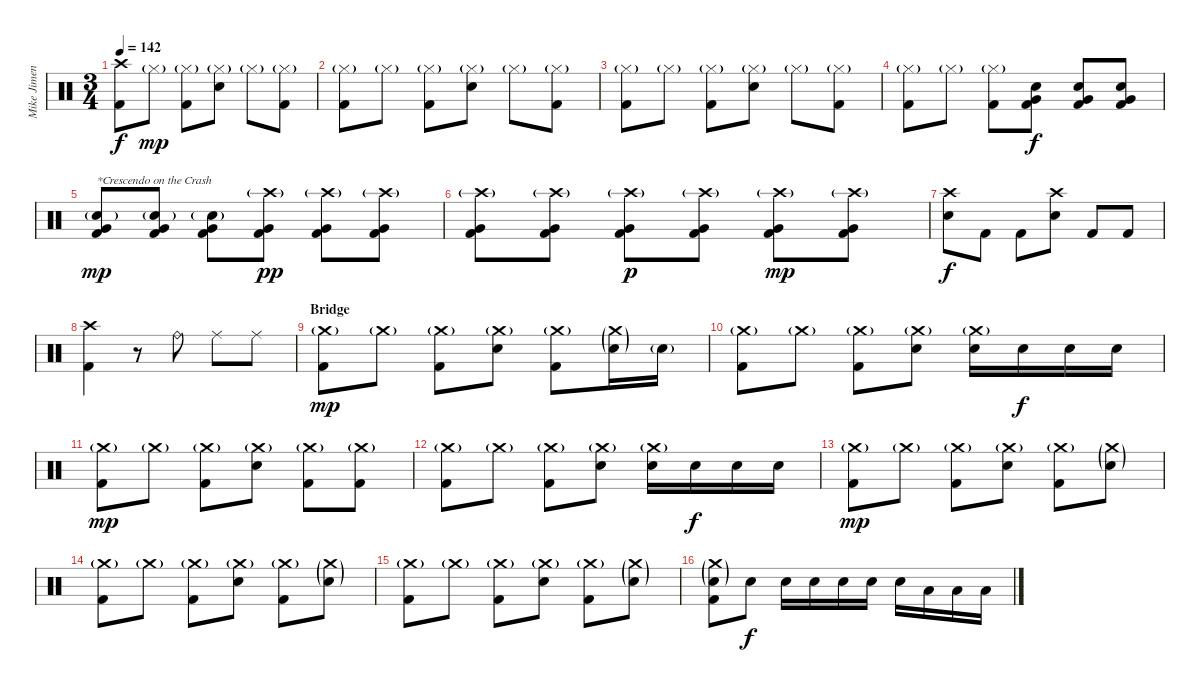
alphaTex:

\track ("Mike Jimenez" "Mike Jimen") {instrument percussion}
\staff {score}
\articulation defaults
\ts (3 4)
\tempo 142
\clef neutral
\ks c
("Crash high (hit)" "Kick (hit) 2").8{dy f} "Hi-Hat (closed)"{g}.8{dy mp} ("Hi-Hat (closed)"{g} "Kick (hit) 2").8 ("Hi-Hat (closed)"{g} "Electric Snare (hit)").8 "Hi-Hat (closed)"{g}.8 ("Hi-Hat (closed)"{g} "Kick (hit) 2").8 |
("Hi-Hat (closed)"{g} "Kick (hit) 2").8 "Hi-Hat (closed)"{g}.8 ("Hi-Hat (closed)"{g} "Kick (hit) 2").8 ("Hi-Hat (closed)"{g} "Electric Snare (hit)").8 "Hi-Hat (closed)"{g}.8 ("Hi-Hat (closed)"{g} "Kick (hit) 2").8 |
("Hi-Hat (closed)"{g} "Kick (hit) 2").8 "Hi-Hat (closed)"{g}.8 ("Hi-Hat (closed)"{g} "Kick (hit) 2").8 ("Hi-Hat (closed)"{g} "Electric Snare (hit)").8 "Hi-Hat (closed)"{g}.8 ("Hi-Hat (closed)"{g} "Kick (hit) 2").8 |
("Hi-Hat (closed)"{g} "Kick (hit) 2").8 "Hi-Hat (closed)"{g}.8 ("Hi-Hat (closed)"{g} "Kick (hit) 2").8 ("Electric Snare (hit)" "Very Low Tom (hit)" "Kick (hit) 2").8{dy f} ("Electric Snare (hit)" "Very Low Tom (hit)" "Kick (hit) 2").8 ("Electric Snare (hit)" "Very Low Tom (hit)" "Kick (hit) 2").8 |
("Electric Snare (hit)"{g} "Very Low Tom (hit)" "Kick (hit) 2").8{txt "*Crescendo on the Crash" dy mp} ("Electric Snare (hit)"{g} "Very Low Tom (hit)" "Kick (hit) 2").8 ("Electric Snare (hit)"{g} "Very Low Tom (hit)" "Kick (hit) 2").8 ("Crash high (hit)"{g} "Very Low Tom (hit)" "Kick (hit) 2").8{dy pp} ("Crash high (hit)"{g} "Very Low Tom (hit)" "Kick (hit) 2").8 ("Crash high (hit)"{g} "Very Low Tom (hit)" "Kick (hit) 2").8 |
("Crash high (hit)"{g} "Very Low Tom (hit)" "Kick (hit) 2").8 ("Crash high (hit)"{g} "Very Low Tom (hit)" "Kick (hit) 2").8 ("Crash high (hit)"{g} "Very Low Tom (hit)" "Kick (hit) 2").8{dy p} ("Crash high (hit)"{g} "Very Low Tom (hit)" "Kick (hit) 2").8 ("Crash high (hit)"{g} "Very Low Tom (hit)" "Kick (hit) 2").8{dy mp} ("Crash high (hit)"{g} "Very Low Tom (hit)" "Kick (hit) 2").8 |
("Crash high (hit)" "Electric Snare (hit)").8{dy f} "Kick (hit) 2".8 "Kick (hit) 2".8 ("Crash high (hit)" "Electric Snare (hit)").8 "Kick (hit) 2".8 "Kick (hit) 2".8 |
("Crash high (hit)" "Kick (hit) 2").4 r.8 "Ride (bell)".8 "Ride (middle)".8 "Ride (middle)".8 |
\section ("" "Bridge")
("Crash medium (hit)"{g} "Kick (hit) 2").8{dy mp} "Crash medium (hit)"{g}.8 ("Crash medium (hit)"{g} "Kick (hit) 2").8 ("Crash medium (hit)"{g} "Electric Snare (hit)").8 ("Crash medium (hit)"{g} "Kick (hit) 2").8 ("Crash medium (hit)"{g} "Electric Snare (hit)"{g}).16 "Electric Snare (hit)"{g}.16 |
("Crash medium (hit)"{g} "Kick (hit) 2").8 "Crash medium (hit)"{g}.8 ("Crash medium (hit)"{g} "Kick (hit) 2").8 ("Crash medium (hit)"{g} "Electric Snare (hit)").8 ("Crash medium (hit)"{g} "Electric Snare (hit)").16 "Electric Snare (hit)".16{dy f} "Electric Snare (hit)".16 "Electric Snare (hit)".16 |
("Crash medium (hit)"{g} "Kick (hit) 2").8{dy mp} "Crash medium (hit)"{g}.8 ("Crash medium (hit)"{g} "Kick (hit) 2").8 ("Crash medium (hit)"{g} "Electric Snare (hit)").8 ("Crash medium (hit)"{g} "Kick (hit) 2").8 ("Crash medium (hit)"{g} "Kick (hit) 2").8 |
("Crash medium (hit)"{g} "Kick (hit) 2").8 "Crash medium (hit)"{g}.8 ("Crash medium (hit)"{g} "Kick (hit) 2").8 ("Crash medium (hit)"{g} "Electric Snare (hit)").8 ("Crash medium (hit)"{g} "Electric Snare (hit)").16 "Electric Snare (hit)".16{dy f} "Electric Snare (hit)".16 "Electric Snare (hit)".16 |
("Crash medium (hit)"{g} "Kick (hit) 2").8{dy mp} "Crash medium (hit)"{g}.8 ("Crash medium (hit)"{g} "Kick (hit) 2").8 ("Crash medium (hit)"{g} "Electric Snare (hit)").8 ("Crash medium (hit)"{g} "Kick (hit) 2").8 ("Crash medium (hit)"{g} "Electric Snare (hit)"{g}).8 |
("Crash medium (hit)"{g} "Kick (hit) 2").8 "Crash medium (hit)"{g}.8 ("Crash medium (hit)"{g} "Kick (hit) 2").8 ("Crash medium (hit)"{g} "Electric Snare (hit)").8 ("Crash medium (hit)"{g} "Kick (hit) 2").8 ("Crash medium (hit)"{g} "Electric Snare (hit)"{g}).8 |
("Crash medium (hit)"{g} "Kick (hit) 2").8 "Crash medium (hit)"{g}.8 ("Crash medium (hit)"{g} "Kick (hit) 2").8 ("Crash medium (hit)"{g} "Electric Snare (hit)").8 ("Crash medium (hit)"{g} "Kick (hit) 2").8 ("Crash medium (hit)"{g} "Electric Snare (hit)"{g}).8 |
("Crash medium (hit)"{g} "Electric Snare (hit)"{g} "Kick (hit) 2").8 "Electric Snare (hit)".8{dy f} "Electric Snare (hit)".16 "Electric Snare (hit)".16 "Electric Snare (hit)".16 "Electric Snare (hit)".16 "Electric Snare (hit)".16 "Low Tom (hit)".16 "Low Tom (hit)".16 "Low Tom (hit)".16
